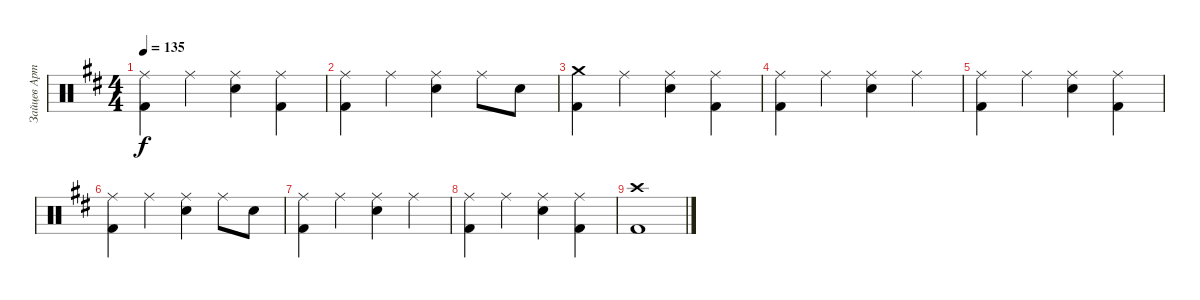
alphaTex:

\track ("Зайцев Артём" "Зайцев Арт") {instrument percussion}
\staff {score}
\articulation defaults
\ts (4 4)
\tempo 135
\clef neutral
\ks d
("Kick (hit) 2" "Ride (middle)").4{dy f} "Ride (middle)".4 ("Ride (middle)" "Snare (hit) 2").4 ("Ride (middle)" "Kick (hit) 2").4 |
("Kick (hit) 2" "Ride (middle)").4 "Ride (middle)".4 ("Ride (middle)" "Snare (hit) 2").4 "Ride (middle)".8 "Snare (hit) 2".8 |
("Kick (hit) 2" "Crash medium (hit)").4 "Ride (middle)".4 ("Ride (middle)" "Snare (hit) 2").4 ("Ride (middle)" "Kick (hit) 2").4 |
("Ride (middle)" "Kick (hit) 2").4 "Ride (middle)".4 ("Ride (middle)" "Snare (hit) 2").4 "Ride (middle)".4 |
("Kick (hit) 2" "Ride (middle)").4 "Ride (middle)".4 ("Ride (middle)" "Snare (hit) 2").4 ("Ride (middle)" "Kick (hit) 2").4 |
("Kick (hit) 2" "Ride (middle)").4 "Ride (middle)".4 ("Ride (middle)" "Snare (hit) 2").4 "Ride (middle)".8 "Snare (hit) 2".8 |
("Ride (middle)" "Kick (hit) 2").4 "Ride (middle)".4 ("Ride (middle)" "Snare (hit) 2").4 "Ride (middle)".4 |
("Kick (hit) 2" "Ride (middle)").4 "Ride (middle)".4 ("Ride (middle)" "Snare (hit) 2").4 ("Ride (middle)" "Kick (hit) 2").4 |
("Kick (hit) 2" "Crash high (hit)").1
